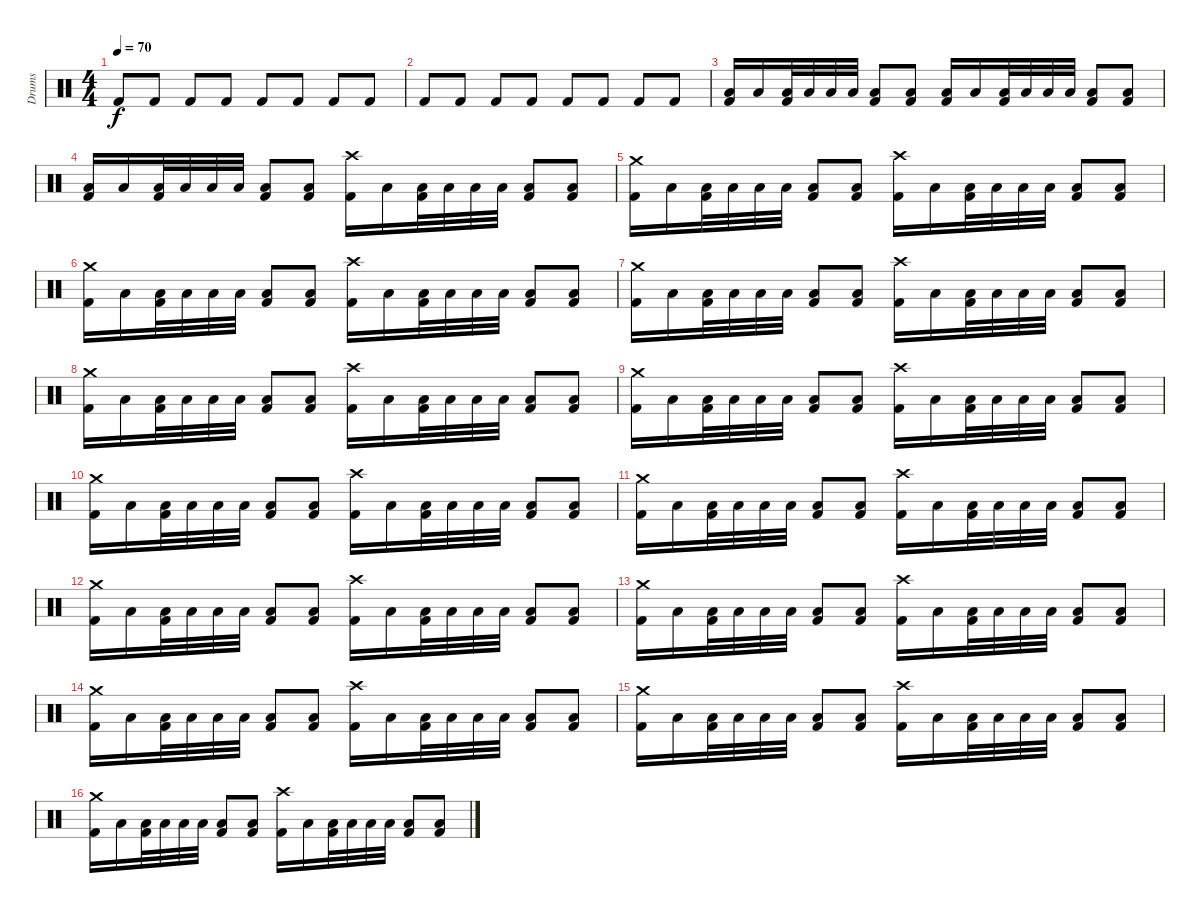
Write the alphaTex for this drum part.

\track ("Drums" "Drums") {instrument percussion}
\staff {score}
\articulation defaults
\ts (4 4)
\tempo 70
\clef neutral
\ks c "Kick (hit) 2".8{dy f} "Kick (hit) 2".8 "Kick (hit) 2".8 "Kick (hit) 2".8 "Kick (hit) 2".8 "Kick (hit) 2".8 "Kick (hit) 2".8 "Kick (hit) 2".8
|
"Kick (hit) 2".8 "Kick (hit) 2".8 "Kick (hit) 2".8 "Kick (hit) 2".8 "Kick (hit) 2".8 "Kick (hit) 2".8 "Kick (hit) 2".8 "Kick (hit) 2".8 |
("Low Tom (hit)" "Kick (hit) 2").16 "Low Tom (hit)".16 ("Low Tom (hit)" "Kick (hit) 2").32 "Low Tom (hit)".32 "Low Tom (hit)".32 "Low Tom (hit)".32 ("Low Tom (hit)" "Kick (hit) 2").8 ("Low Tom (hit)" "Kick (hit) 2").8 ("Low Tom (hit)" "Kick (hit) 2").16 "Low Tom (hit)".16 ("Low Tom (hit)" "Kick (hit) 2").32 "Low Tom (hit)".32 "Low Tom (hit)".32 "Low Tom (hit)".32 ("Low Tom (hit)" "Kick (hit) 2").8 ("Low Tom (hit)" "Kick (hit) 2").8 |
("Low Tom (hit)" "Kick (hit) 2").16 "Low Tom (hit)".16 ("Low Tom (hit)" "Kick (hit) 2").32 "Low Tom (hit)".32 "Low Tom (hit)".32 "Low Tom (hit)".32 ("Low Tom (hit)" "Kick (hit) 2").8 ("Low Tom (hit)" "Kick (hit) 2").8 ("Crash high (hit)" "Kick (hit) 2").16 "Low Tom (hit)".16 ("Low Tom (hit)" "Kick (hit) 2").32 "Low Tom (hit)".32 "Low Tom (hit)".32 "Low Tom (hit)".32 ("Low Tom (hit)" "Kick (hit) 2").8 ("Low Tom (hit)" "Kick (hit) 2").8 |
("Crash medium (hit)" "Kick (hit) 2").16 "Low Tom (hit)".16 ("Low Tom (hit)" "Kick (hit) 2").32 "Low Tom (hit)".32 "Low Tom (hit)".32 "Low Tom (hit)".32 ("Low Tom (hit)" "Kick (hit) 2").8 ("Low Tom (hit)" "Kick (hit) 2").8 ("Crash high (hit)" "Kick (hit) 2").16 "Low Tom (hit)".16 ("Low Tom (hit)" "Kick (hit) 2").32 "Low Tom (hit)".32 "Low Tom (hit)".32 "Low Tom (hit)".32 ("Low Tom (hit)" "Kick (hit) 2").8 ("Low Tom (hit)" "Kick (hit) 2").8 |
("Crash medium (hit)" "Kick (hit) 2").16 "Low Tom (hit)".16 ("Low Tom (hit)" "Kick (hit) 2").32 "Low Tom (hit)".32 "Low Tom (hit)".32 "Low Tom (hit)".32 ("Low Tom (hit)" "Kick (hit) 2").8 ("Low Tom (hit)" "Kick (hit) 2").8 ("Crash high (hit)" "Kick (hit) 2").16 "Low Tom (hit)".16 ("Low Tom (hit)" "Kick (hit) 2").32 "Low Tom (hit)".32 "Low Tom (hit)".32 "Low Tom (hit)".32 ("Low Tom (hit)" "Kick (hit) 2").8 ("Low Tom (hit)" "Kick (hit) 2").8 |
("Crash medium (hit)" "Kick (hit) 2").16 "Low Tom (hit)".16 ("Low Tom (hit)" "Kick (hit) 2").32 "Low Tom (hit)".32 "Low Tom (hit)".32 "Low Tom (hit)".32 ("Low Tom (hit)" "Kick (hit) 2").8 ("Low Tom (hit)" "Kick (hit) 2").8 ("Crash high (hit)" "Kick (hit) 2").16 "Low Tom (hit)".16 ("Low Tom (hit)" "Kick (hit) 2").32 "Low Tom (hit)".32 "Low Tom (hit)".32 "Low Tom (hit)".32 ("Low Tom (hit)" "Kick (hit) 2").8 ("Low Tom (hit)" "Kick (hit) 2").8 |
("Crash medium (hit)" "Kick (hit) 2").16 "Low Tom (hit)".16 ("Low Tom (hit)" "Kick (hit) 2").32 "Low Tom (hit)".32 "Low Tom (hit)".32 "Low Tom (hit)".32 ("Low Tom (hit)" "Kick (hit) 2").8 ("Low Tom (hit)" "Kick (hit) 2").8 ("Crash high (hit)" "Kick (hit) 2").16 "Low Tom (hit)".16 ("Low Tom (hit)" "Kick (hit) 2").32 "Low Tom (hit)".32 "Low Tom (hit)".32 "Low Tom (hit)".32 ("Low Tom (hit)" "Kick (hit) 2").8 ("Low Tom (hit)" "Kick (hit) 2").8 |
("Crash medium (hit)" "Kick (hit) 2").16 "Low Tom (hit)".16 ("Low Tom (hit)" "Kick (hit) 2").32 "Low Tom (hit)".32 "Low Tom (hit)".32 "Low Tom (hit)".32 ("Low Tom (hit)" "Kick (hit) 2").8 ("Low Tom (hit)" "Kick (hit) 2").8 ("Crash high (hit)" "Kick (hit) 2").16 "Low Tom (hit)".16 ("Low Tom (hit)" "Kick (hit) 2").32 "Low Tom (hit)".32 "Low Tom (hit)".32 "Low Tom (hit)".32 ("Low Tom (hit)" "Kick (hit) 2").8 ("Low Tom (hit)" "Kick (hit) 2").8 |
("Crash medium (hit)" "Kick (hit) 2").16 "Low Tom (hit)".16 ("Low Tom (hit)" "Kick (hit) 2").32 "Low Tom (hit)".32 "Low Tom (hit)".32 "Low Tom (hit)".32 ("Low Tom (hit)" "Kick (hit) 2").8 ("Low Tom (hit)" "Kick (hit) 2").8 ("Crash high (hit)" "Kick (hit) 2").16 "Low Tom (hit)".16 ("Low Tom (hit)" "Kick (hit) 2").32 "Low Tom (hit)".32 "Low Tom (hit)".32 "Low Tom (hit)".32 ("Low Tom (hit)" "Kick (hit) 2").8 ("Low Tom (hit)" "Kick (hit) 2").8 |
("Crash medium (hit)" "Kick (hit) 2").16 "Low Tom (hit)".16 ("Low Tom (hit)" "Kick (hit) 2").32 "Low Tom (hit)".32 "Low Tom (hit)".32 "Low Tom (hit)".32 ("Low Tom (hit)" "Kick (hit) 2").8 ("Low Tom (hit)" "Kick (hit) 2").8 ("Crash high (hit)" "Kick (hit) 2").16 "Low Tom (hit)".16 ("Low Tom (hit)" "Kick (hit) 2").32 "Low Tom (hit)".32 "Low Tom (hit)".32 "Low Tom (hit)".32 ("Low Tom (hit)" "Kick (hit) 2").8 ("Low Tom (hit)" "Kick (hit) 2").8 |
("Crash medium (hit)" "Kick (hit) 2").16 "Low Tom (hit)".16 ("Low Tom (hit)" "Kick (hit) 2").32 "Low Tom (hit)".32 "Low Tom (hit)".32 "Low Tom (hit)".32 ("Low Tom (hit)" "Kick (hit) 2").8 ("Low Tom (hit)" "Kick (hit) 2").8 ("Crash high (hit)" "Kick (hit) 2").16 "Low Tom (hit)".16 ("Low Tom (hit)" "Kick (hit) 2").32 "Low Tom (hit)".32 "Low Tom (hit)".32 "Low Tom (hit)".32 ("Low Tom (hit)" "Kick (hit) 2").8 ("Low Tom (hit)" "Kick (hit) 2").8 |
("Crash medium (hit)" "Kick (hit) 2").16 "Low Tom (hit)".16 ("Low Tom (hit)" "Kick (hit) 2").32 "Low Tom (hit)".32 "Low Tom (hit)".32 "Low Tom (hit)".32 ("Low Tom (hit)" "Kick (hit) 2").8 ("Low Tom (hit)" "Kick (hit) 2").8 ("Crash high (hit)" "Kick (hit) 2").16 "Low Tom (hit)".16 ("Low Tom (hit)" "Kick (hit) 2").32 "Low Tom (hit)".32 "Low Tom (hit)".32 "Low Tom (hit)".32 ("Low Tom (hit)" "Kick (hit) 2").8 ("Low Tom (hit)" "Kick (hit) 2").8 |
("Crash medium (hit)" "Kick (hit) 2").16 "Low Tom (hit)".16 ("Low Tom (hit)" "Kick (hit) 2").32 "Low Tom (hit)".32 "Low Tom (hit)".32 "Low Tom (hit)".32 ("Low Tom (hit)" "Kick (hit) 2").8 ("Low Tom (hit)" "Kick (hit) 2").8 ("Crash high (hit)" "Kick (hit) 2").16 "Low Tom (hit)".16 ("Low Tom (hit)" "Kick (hit) 2").32 "Low Tom (hit)".32 "Low Tom (hit)".32 "Low Tom (hit)".32 ("Low Tom (hit)" "Kick (hit) 2").8 ("Low Tom (hit)" "Kick (hit) 2").8 |
("Crash medium (hit)" "Kick (hit) 2").16 "Low Tom (hit)".16 ("Low Tom (hit)" "Kick (hit) 2").32 "Low Tom (hit)".32 "Low Tom (hit)".32 "Low Tom (hit)".32 ("Low Tom (hit)" "Kick (hit) 2").8 ("Low Tom (hit)" "Kick (hit) 2").8 ("Crash high (hit)" "Kick (hit) 2").16 "Low Tom (hit)".16 ("Low Tom (hit)" "Kick (hit) 2").32 "Low Tom (hit)".32 "Low Tom (hit)".32 "Low Tom (hit)".32 ("Low Tom (hit)" "Kick (hit) 2").8 ("Low Tom (hit)" "Kick (hit) 2").8 |
("Crash medium (hit)" "Kick (hit) 2").16 "Low Tom (hit)".16 ("Low Tom (hit)" "Kick (hit) 2").32 "Low Tom (hit)".32 "Low Tom (hit)".32 "Low Tom (hit)".32 ("Low Tom (hit)" "Kick (hit) 2").8 ("Low Tom (hit)" "Kick (hit) 2").8 ("Crash high (hit)" "Kick (hit) 2").16 "Low Tom (hit)".16 ("Low Tom (hit)" "Kick (hit) 2").32 "Low Tom (hit)".32 "Low Tom (hit)".32 "Low Tom (hit)".32 ("Low Tom (hit)" "Kick (hit) 2").8 ("Low Tom (hit)" "Kick (hit) 2").8
